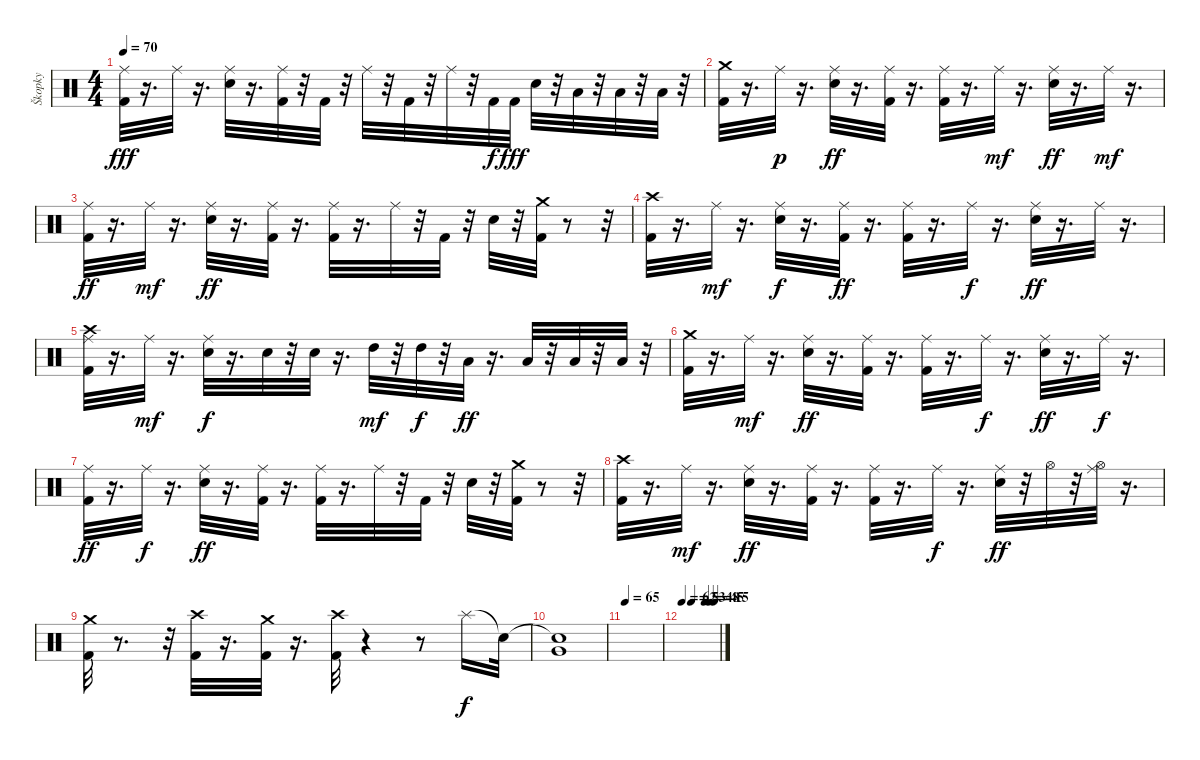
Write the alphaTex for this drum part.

\track ("Škopky" "Škopky") {instrument percussion}
\staff {score}
\articulation defaults
\ts (4 4)
\tempo 70
\clef neutral
\ks c
("Kick (hit) 2" "Ride (middle)").32{dy fff} r.16{d} "Ride (middle)".32 r.16{d} ("Snare (hit) 2" "Ride (middle)").32 r.16{d} ("Kick (hit) 2" "Ride (middle)").32 r.32 "Kick (hit) 2".32 r.32 "Ride (middle)".32 r.32 "Kick (hit) 2".32 r.32 "Ride (middle)".32 r.32 "Kick (hit) 2".32{dy f} "Kick (hit) 2".32{dy fff} "Snare (hit) 2".32 r.32 "Low Tom (hit)".32 r.32 "Low Tom (hit)".32 r.32 "Low Floor Tom (hit)".32 r.32 |
("Kick (hit) 2" "Crash medium (hit)").32 r.16{d} "Ride (middle)".32{dy p} r.16{d} ("Snare (hit) 2" "Ride (middle)").32{dy ff} r.16{d} ("Kick (hit) 2" "Ride (middle)").32 r.16{d} ("Kick (hit) 2" "Ride (middle)").32 r.16{d} "Ride (middle)".32{dy mf} r.16{d} ("Snare (hit) 2" "Ride (middle)").32{dy ff} r.16{d} "Ride (middle)".32{dy mf} r.16{d} |
("Kick (hit) 2" "Ride (middle)").32{dy ff} r.16{d} "Ride (middle)".32{dy mf} r.16{d} ("Snare (hit) 2" "Ride (middle)").32{dy ff} r.16{d} ("Kick (hit) 2" "Ride (middle)").32 r.16{d} ("Ride (middle)" "Kick (hit) 2").32 r.16{d} "Ride (middle)".32 r.32 "Kick (hit) 2".32 r.32 "Snare (hit) 2".32 r.32 ("Kick (hit) 2" "Crash medium (hit)").32 r.8 r.32 |
("Crash high (hit)" "Kick (hit) 2").32 r.16{d} "Ride (middle)".32{dy mf} r.16{d} ("Snare (hit) 2" "Ride (middle)").32{dy f} r.16{d} ("Kick (hit) 2" "Ride (middle)").32{dy ff} r.16{d} ("Kick (hit) 2" "Ride (middle)").32 r.16{d} "Ride (middle)".32{dy f} r.16{d} ("Ride (middle)" "Snare (hit) 2").32{dy ff} r.16{d} "Ride (middle)".32 r.16{d} |
("Kick (hit) 2" "Ride (middle)" "Crash high (hit)").32 r.16{d} "Ride (middle)".32{dy mf} r.16{d} ("Ride (middle)" "Snare (hit) 2").32{dy f} r.16{d} "Snare (hit) 2".32 r.32 "Snare (hit) 2".32 r.16{d} "High Tom (hit)".32{dy mf} r.32 "High Tom (hit)".32{dy f} r.32 "Low Tom (hit)".32{dy ff} r.16{d} "Low Tom (hit)".32 r.32 "Low Floor Tom (hit)".32 r.32 "Low Floor Tom (hit)".32 r.32 |
("Kick (hit) 2" "Crash medium (hit)").32 r.16{d} "Ride (middle)".32{dy mf} r.16{d} ("Snare (hit) 2" "Ride (middle)").32{dy ff} r.16{d} ("Kick (hit) 2" "Ride (middle)").32 r.16{d} ("Kick (hit) 2" "Ride (middle)").32 r.16{d} "Ride (middle)".32{dy f} r.16{d} ("Ride (middle)" "Snare (hit) 2").32{dy ff} r.16{d} "Ride (middle)".32{dy f} r.16{d} |
("Kick (hit) 2" "Ride (middle)").32{dy ff} r.16{d} "Ride (middle)".32{dy f} r.16{d} ("Snare (hit) 2" "Ride (middle)").32{dy ff} r.16{d} ("Kick (hit) 2" "Ride (middle)").32 r.16{d} ("Kick (hit) 2" "Ride (middle)").32 r.16{d} "Ride (middle)".32 r.32 "Kick (hit) 2".32 r.32 "Snare (hit) 2".32 r.32 ("Kick (hit) 2" "Crash medium (hit)").32 r.8 r.32 |
("Kick (hit) 2" "Crash high (hit)").32 r.16{d} "Ride (middle)".32{dy mf} r.16{d} ("Ride (middle)" "Snare (hit) 2").32{dy ff} r.16{d} ("Kick (hit) 2" "Ride (middle)").32 r.16{d} ("Ride (middle)" "Kick (hit) 2").32 r.16{d} "Ride (middle)".32{dy f} r.16{d} ("Snare (hit) 2" "Ride (middle)").32{dy ff} r.32 "Hi-Hat (open)".32 r.32 ("Hi-Hat (open)" "Ride (middle)").32 r.16{d} |
("Kick (hit) 2" "Crash medium (hit)").32 r.8{d} r.32 ("Kick (hit) 2" "Crash high (hit)").32 r.16{d} ("Kick (hit) 2" "Crash medium (hit)").32 r.16{d} ("Kick (hit) 2" "Crash high (hit)").32 r.4 r.8 "Splash (hit)".16{dy f} "Snare (hit)"{t}.32 |
("Snare (hit)"{t} "Very Low Tom (hit)").1 |
\tempo 65
|
\tempo 62
\tempo (53 0.25)
\tempo (48 0.625)
\tempo (45 0.75)
\tempo (15 0.875)
